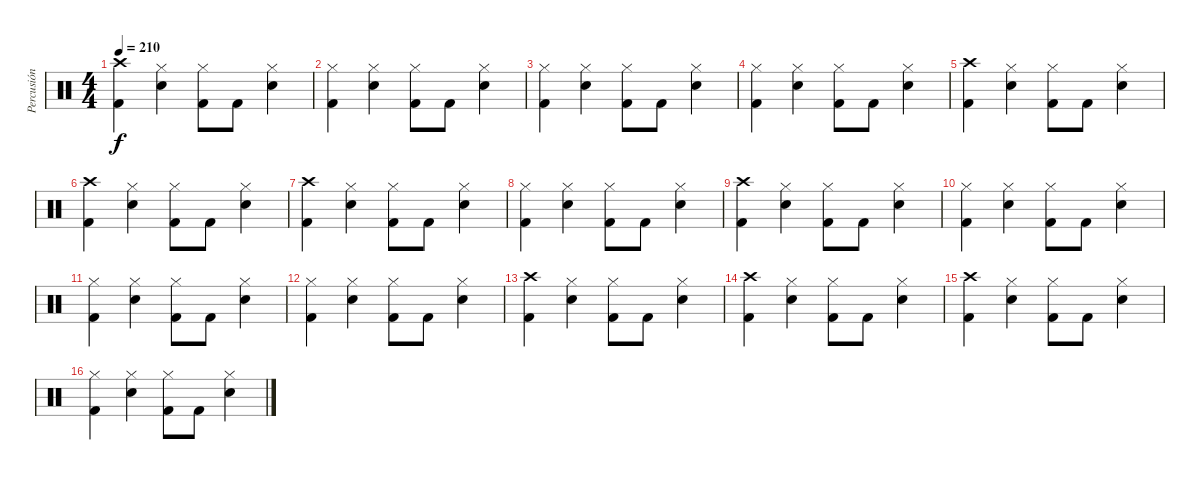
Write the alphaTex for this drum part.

\track ("Percusión" "Percusión") {instrument percussion}
\staff {score}
\articulation defaults
\ts (4 4)
\tempo 210
\clef neutral
\ks c
("Crash high (hit)" "Kick (hit) 2").4{dy f} ("Hi-Hat (closed)" "Electric Snare (hit)").4 ("Hi-Hat (closed)" "Kick (hit) 2").8 "Kick (hit) 2".8 ("Hi-Hat (closed)" "Electric Snare (hit)").4 |
("Hi-Hat (closed)" "Kick (hit) 2").4 ("Hi-Hat (closed)" "Electric Snare (hit)").4 ("Hi-Hat (closed)" "Kick (hit) 2").8 "Kick (hit) 2".8 ("Hi-Hat (closed)" "Electric Snare (hit)").4 |
("Hi-Hat (closed)" "Kick (hit) 2").4 ("Hi-Hat (closed)" "Electric Snare (hit)").4 ("Hi-Hat (closed)" "Kick (hit) 2").8 "Kick (hit) 2".8 ("Hi-Hat (closed)" "Electric Snare (hit)").4 |
("Hi-Hat (closed)" "Kick (hit) 2").4 ("Hi-Hat (closed)" "Electric Snare (hit)").4 ("Hi-Hat (closed)" "Kick (hit) 2").8 "Kick (hit) 2".8 ("Hi-Hat (closed)" "Electric Snare (hit)").4 |
("Crash high (hit)" "Kick (hit) 2").4 ("Hi-Hat (closed)" "Electric Snare (hit)").4 ("Hi-Hat (closed)" "Kick (hit) 2").8 "Kick (hit) 2".8 ("Hi-Hat (closed)" "Electric Snare (hit)").4 |
("Crash high (hit)" "Kick (hit) 2").4 ("Hi-Hat (closed)" "Electric Snare (hit)").4 ("Hi-Hat (closed)" "Kick (hit) 2").8 "Kick (hit) 2".8 ("Hi-Hat (closed)" "Electric Snare (hit)").4 |
("Crash high (hit)" "Kick (hit) 2").4 ("Hi-Hat (closed)" "Electric Snare (hit)").4 ("Hi-Hat (closed)" "Kick (hit) 2").8 "Kick (hit) 2".8 ("Hi-Hat (closed)" "Electric Snare (hit)").4 |
("Hi-Hat (closed)" "Kick (hit) 2").4 ("Hi-Hat (closed)" "Electric Snare (hit)").4 ("Hi-Hat (closed)" "Kick (hit) 2").8 "Kick (hit) 2".8 ("Hi-Hat (closed)" "Electric Snare (hit)").4 |
("Crash high (hit)" "Kick (hit) 2").4 ("Hi-Hat (closed)" "Electric Snare (hit)").4 ("Hi-Hat (closed)" "Kick (hit) 2").8 "Kick (hit) 2".8 ("Hi-Hat (closed)" "Electric Snare (hit)").4 |
("Hi-Hat (closed)" "Kick (hit) 2").4 ("Hi-Hat (closed)" "Electric Snare (hit)").4 ("Hi-Hat (closed)" "Kick (hit) 2").8 "Kick (hit) 2".8 ("Hi-Hat (closed)" "Electric Snare (hit)").4 |
("Hi-Hat (closed)" "Kick (hit) 2").4 ("Hi-Hat (closed)" "Electric Snare (hit)").4 ("Hi-Hat (closed)" "Kick (hit) 2").8 "Kick (hit) 2".8 ("Hi-Hat (closed)" "Electric Snare (hit)").4 |
("Hi-Hat (closed)" "Kick (hit) 2").4 ("Hi-Hat (closed)" "Electric Snare (hit)").4 ("Hi-Hat (closed)" "Kick (hit) 2").8 "Kick (hit) 2".8 ("Hi-Hat (closed)" "Electric Snare (hit)").4 |
("Crash high (hit)" "Kick (hit) 2").4 ("Hi-Hat (closed)" "Electric Snare (hit)").4 ("Hi-Hat (closed)" "Kick (hit) 2").8 "Kick (hit) 2".8 ("Hi-Hat (closed)" "Electric Snare (hit)").4 |
("Crash high (hit)" "Kick (hit) 2").4 ("Hi-Hat (closed)" "Electric Snare (hit)").4 ("Hi-Hat (closed)" "Kick (hit) 2").8 "Kick (hit) 2".8 ("Hi-Hat (closed)" "Electric Snare (hit)").4 |
("Crash high (hit)" "Kick (hit) 2").4 ("Hi-Hat (closed)" "Electric Snare (hit)").4 ("Hi-Hat (closed)" "Kick (hit) 2").8 "Kick (hit) 2".8 ("Hi-Hat (closed)" "Electric Snare (hit)").4 |
("Hi-Hat (closed)" "Kick (hit) 2").4 ("Hi-Hat (closed)" "Electric Snare (hit)").4 ("Hi-Hat (closed)" "Kick (hit) 2").8 "Kick (hit) 2".8 ("Hi-Hat (closed)" "Electric Snare (hit)").4
